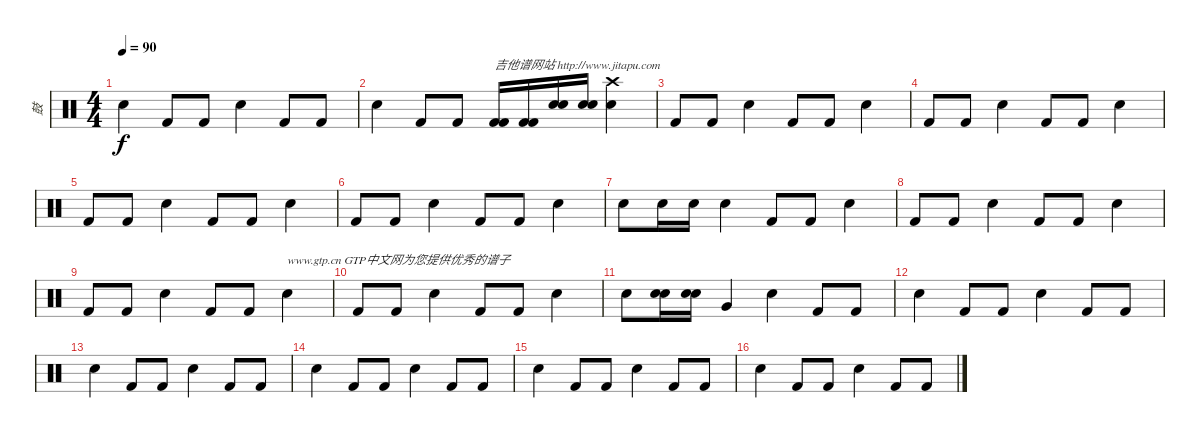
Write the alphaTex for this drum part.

\track ("鼓" "鼓") {instrument percussion}
\staff {score}
\articulation defaults
\ts (4 4)
\tempo 90
\clef neutral
\ks c "Snare (hit) 2".4{dy f} "Kick (hit) 2".8 "Kick (hit) 2".8 "Snare (hit) 2".4 "Kick (hit) 2".8 "Kick (hit) 2".8
|
"Snare (hit) 2".4 "Kick (hit) 2".8 "Kick (hit) 2".8 ("Kick (hit) 2" "Kick (hit) 2").16{txt "吉他谱网站 http://www.jitapu.com"} ("Kick (hit) 2" "Kick (hit) 2").16 ("Electric Snare (hit)" "Electric Snare (hit)").16 ("Electric Snare (hit)" "Electric Snare (hit)").16 ("Crash high (hit)" "Electric Snare (hit)").4 |
"Kick (hit) 2".8 "Kick (hit) 2".8 "Snare (hit) 2".4 "Kick (hit) 2".8 "Kick (hit) 2".8 "Snare (hit) 2".4 |
"Kick (hit) 2".8 "Kick (hit) 2".8 "Snare (hit) 2".4 "Kick (hit) 2".8 "Kick (hit) 2".8 "Snare (hit) 2".4 |
"Kick (hit) 2".8 "Kick (hit) 2".8 "Snare (hit) 2".4 "Kick (hit) 2".8 "Kick (hit) 2".8 "Snare (hit) 2".4 |
"Kick (hit) 2".8 "Kick (hit) 2".8 "Snare (hit) 2".4 "Kick (hit) 2".8 "Kick (hit) 2".8 "Snare (hit) 2".4 |
"Electric Snare (hit)".8 "Electric Snare (hit)".16 "Electric Snare (hit)".16 "Snare (hit) 2".4 "Kick (hit) 2".8 "Kick (hit) 2".8 "Snare (hit) 2".4 |
"Kick (hit) 2".8 "Kick (hit) 2".8 "Snare (hit) 2".4 "Kick (hit) 2".8 "Kick (hit) 2".8 "Snare (hit) 2".4 |
"Kick (hit) 2".8 "Kick (hit) 2".8 "Snare (hit) 2".4 "Kick (hit) 2".8 "Kick (hit) 2".8 "Snare (hit) 2".4{txt "www.gtp.cn GTP中文网为您提供优秀的谱子"} |
"Kick (hit) 2".8 "Kick (hit) 2".8 "Snare (hit) 2".4 "Kick (hit) 2".8 "Kick (hit) 2".8 "Snare (hit) 2".4 |
"Snare (hit) 2".8 ("Electric Snare (hit)" "Electric Snare (hit)").16 ("Electric Snare (hit)" "Electric Snare (hit)").16 "Very Low Tom (hit)".4 "Snare (hit) 2".4 "Kick (hit) 2".8 "Kick (hit) 2".8 |
"Snare (hit) 2".4 "Kick (hit) 2".8 "Kick (hit) 2".8 "Snare (hit) 2".4 "Kick (hit) 2".8 "Kick (hit) 2".8 |
"Snare (hit) 2".4 "Kick (hit) 2".8 "Kick (hit) 2".8 "Snare (hit) 2".4 "Kick (hit) 2".8 "Kick (hit) 2".8 |
"Snare (hit) 2".4 "Kick (hit) 2".8 "Kick (hit) 2".8 "Snare (hit) 2".4 "Kick (hit) 2".8 "Kick (hit) 2".8 |
"Snare (hit) 2".4 "Kick (hit) 2".8 "Kick (hit) 2".8 "Snare (hit) 2".4 "Kick (hit) 2".8 "Kick (hit) 2".8 |
"Snare (hit) 2".4 "Kick (hit) 2".8 "Kick (hit) 2".8 "Snare (hit) 2".4 "Kick (hit) 2".8 "Kick (hit) 2".8
